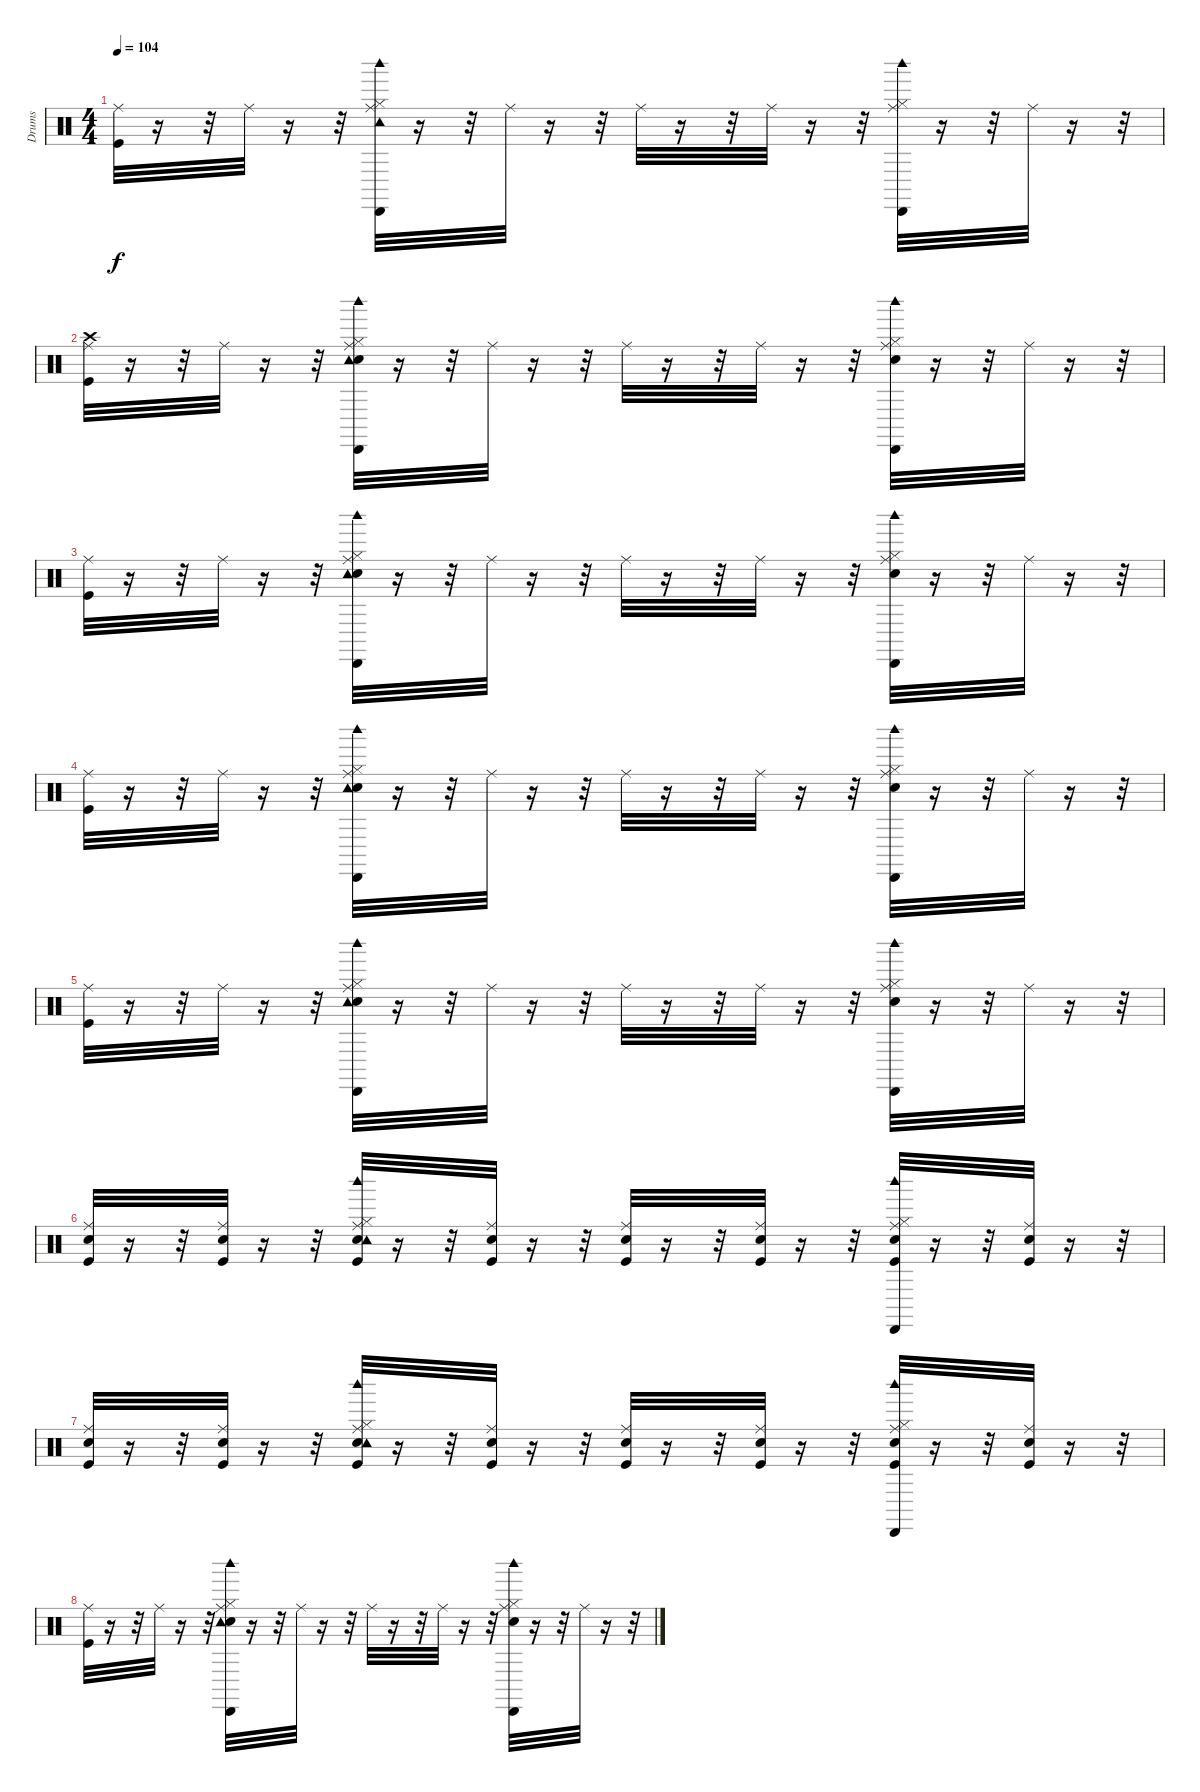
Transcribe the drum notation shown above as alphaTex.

\track ("Drums" "Drums") {instrument percussion}
\staff {score}
\articulation defaults
\ts (4 4)
\tempo 104
\clef neutral
\ks c
("Kick (hit)" "Ride (middle)").32{dy f} r.16 r.32 "Ride (middle)".32 r.16 r.32 ("Hi-Hat (closed)" "Ride (middle)" "Tambourine (hit)" "Cabasa (hit)" "Woodblock high (hit)").32 r.16 r.32 "Ride (middle)".32 r.16 r.32 "Ride (middle)".32 r.16 r.32 "Ride (middle)".32 r.16 r.32 ("Hi-Hat (closed)" "Ride (middle)" "Cabasa (hit)" "Woodblock high (hit)").32 r.16 r.32 "Ride (middle)".32 r.16 r.32 |
("Kick (hit)" "Crash high (hit)" "Ride (middle)").32 r.16 r.32 "Ride (middle)".32 r.16 r.32 ("Snare (hit) 2" "Hi-Hat (closed)" "Ride (middle)" "Tambourine (hit)" "Cabasa (hit)" "Woodblock high (hit)").32 r.16 r.32 "Ride (middle)".32 r.16 r.32 "Ride (middle)".32 r.16 r.32 "Ride (middle)".32 r.16 r.32 ("Snare (hit) 2" "Hi-Hat (closed)" "Ride (middle)" "Cabasa (hit)" "Woodblock high (hit)").32 r.16 r.32 "Ride (middle)".32 r.16 r.32 |
("Kick (hit)" "Ride (middle)").32 r.16 r.32 "Ride (middle)".32 r.16 r.32 ("Snare (hit) 2" "Hi-Hat (closed)" "Ride (middle)" "Tambourine (hit)" "Cabasa (hit)" "Woodblock high (hit)").32 r.16 r.32 "Ride (middle)".32 r.16 r.32 "Ride (middle)".32 r.16 r.32 "Ride (middle)".32 r.16 r.32 ("Snare (hit) 2" "Hi-Hat (closed)" "Ride (middle)" "Cabasa (hit)" "Woodblock high (hit)").32 r.16 r.32 "Ride (middle)".32 r.16 r.32 |
("Kick (hit)" "Ride (middle)").32 r.16 r.32 "Ride (middle)".32 r.16 r.32 ("Snare (hit) 2" "Hi-Hat (closed)" "Ride (middle)" "Tambourine (hit)" "Cabasa (hit)" "Woodblock high (hit)").32 r.16 r.32 "Ride (middle)".32 r.16 r.32 "Ride (middle)".32 r.16 r.32 "Ride (middle)".32 r.16 r.32 ("Snare (hit) 2" "Hi-Hat (closed)" "Ride (middle)" "Cabasa (hit)" "Woodblock high (hit)").32 r.16 r.32 "Ride (middle)".32 r.16 r.32 |
("Kick (hit)" "Ride (middle)").32 r.16 r.32 "Ride (middle)".32 r.16 r.32 ("Snare (hit) 2" "Hi-Hat (closed)" "Ride (middle)" "Tambourine (hit)" "Cabasa (hit)" "Woodblock high (hit)").32 r.16 r.32 "Ride (middle)".32 r.16 r.32 "Ride (middle)".32 r.16 r.32 "Ride (middle)".32 r.16 r.32 ("Snare (hit) 2" "Hi-Hat (closed)" "Ride (middle)" "Cabasa (hit)" "Woodblock high (hit)").32 r.16 r.32 "Ride (middle)".32 r.16 r.32 |
("Kick (hit)" "Snare (hit) 2" "Ride (middle)").32 r.16 r.32 ("Kick (hit)" "Snare (hit) 2" "Ride (middle)").32 r.16 r.32 ("Kick (hit)" "Snare (hit) 2" "Hi-Hat (closed)" "Ride (middle)" "Tambourine (hit)" "Woodblock high (hit)").32 r.16 r.32 ("Kick (hit)" "Snare (hit) 2" "Ride (middle)").32 r.16 r.32 ("Kick (hit)" "Snare (hit) 2" "Ride (middle)").32 r.16 r.32 ("Kick (hit)" "Snare (hit) 2" "Ride (middle)").32 r.16 r.32 ("Kick (hit)" "Snare (hit) 2" "Hi-Hat (closed)" "Ride (middle)" "Cabasa (hit)" "Woodblock high (hit)").32 r.16 r.32 ("Kick (hit)" "Snare (hit) 2" "Ride (middle)").32 r.16 r.32 |
("Kick (hit)" "Snare (hit) 2" "Ride (middle)").32 r.16 r.32 ("Kick (hit)" "Snare (hit) 2" "Ride (middle)").32 r.16 r.32 ("Kick (hit)" "Snare (hit) 2" "Hi-Hat (closed)" "Ride (middle)" "Tambourine (hit)" "Woodblock high (hit)").32 r.16 r.32 ("Kick (hit)" "Snare (hit) 2" "Ride (middle)").32 r.16 r.32 ("Kick (hit)" "Snare (hit) 2" "Ride (middle)").32 r.16 r.32 ("Kick (hit)" "Snare (hit) 2" "Ride (middle)").32 r.16 r.32 ("Kick (hit)" "Snare (hit) 2" "Hi-Hat (closed)" "Ride (middle)" "Cabasa (hit)" "Woodblock high (hit)").32 r.16 r.32 ("Kick (hit)" "Snare (hit) 2" "Ride (middle)").32 r.16 r.32 |
("Kick (hit)" "Ride (middle)").32 r.16 r.32 "Ride (middle)".32 r.16 r.32 ("Snare (hit) 2" "Hi-Hat (closed)" "Ride (middle)" "Tambourine (hit)" "Cabasa (hit)" "Woodblock high (hit)").32 r.16 r.32 "Ride (middle)".32 r.16 r.32 "Ride (middle)".32 r.16 r.32 "Ride (middle)".32 r.16 r.32 ("Snare (hit) 2" "Hi-Hat (closed)" "Ride (middle)" "Cabasa (hit)" "Woodblock high (hit)").32 r.16 r.32 "Ride (middle)".32 r.16 r.32
